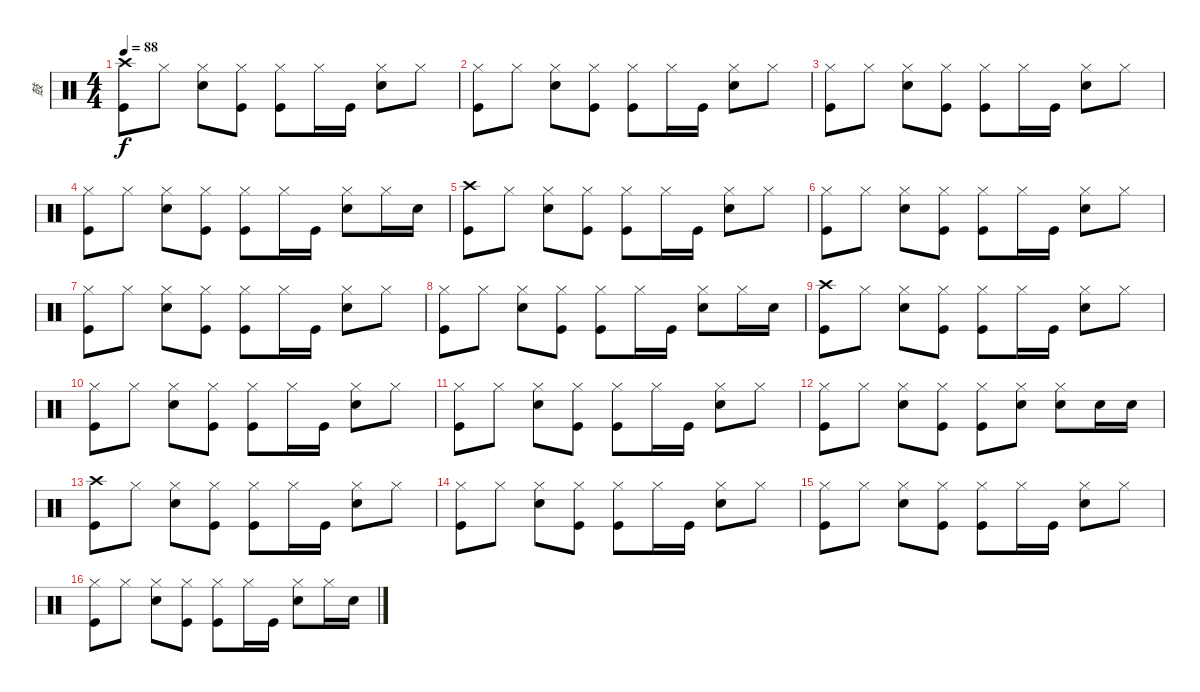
\track ("鼓" "鼓") {instrument percussion}
\staff {score}
\articulation defaults
\ts (4 4)
\tempo 88
\clef neutral
\ks c
("Crash high (hit)" "Kick (hit)").8{dy f} "Hi-Hat (closed)".8 ("Hi-Hat (closed)" "Snare (hit) 2").8 ("Hi-Hat (closed)" "Kick (hit)").8 ("Hi-Hat (closed)" "Kick (hit)").8 "Hi-Hat (closed)".16 "Kick (hit)".16 ("Hi-Hat (closed)" "Snare (hit) 2").8 "Hi-Hat (closed)".8 |
("Hi-Hat (closed)" "Kick (hit)").8 "Hi-Hat (closed)".8 ("Hi-Hat (closed)" "Snare (hit) 2").8 ("Hi-Hat (closed)" "Kick (hit)").8 ("Hi-Hat (closed)" "Kick (hit)").8 "Hi-Hat (closed)".16 "Kick (hit)".16 ("Hi-Hat (closed)" "Snare (hit) 2").8 "Hi-Hat (closed)".8 |
("Hi-Hat (closed)" "Kick (hit)").8 "Hi-Hat (closed)".8 ("Hi-Hat (closed)" "Snare (hit) 2").8 ("Hi-Hat (closed)" "Kick (hit)").8 ("Hi-Hat (closed)" "Kick (hit)").8 "Hi-Hat (closed)".16 "Kick (hit)".16 ("Hi-Hat (closed)" "Snare (hit) 2").8 "Hi-Hat (closed)".8 |
("Hi-Hat (closed)" "Kick (hit)").8 "Hi-Hat (closed)".8 ("Hi-Hat (closed)" "Snare (hit) 2").8 ("Hi-Hat (closed)" "Kick (hit)").8 ("Hi-Hat (closed)" "Kick (hit)").8 "Hi-Hat (closed)".16 "Kick (hit)".16 ("Hi-Hat (closed)" "Snare (hit) 2").8 "Hi-Hat (closed)".16 "Snare (hit) 2".16 |
("Crash high (hit)" "Kick (hit)").8 "Hi-Hat (closed)".8 ("Hi-Hat (closed)" "Snare (hit) 2").8 ("Hi-Hat (closed)" "Kick (hit)").8 ("Hi-Hat (closed)" "Kick (hit)").8 "Hi-Hat (closed)".16 "Kick (hit)".16 ("Hi-Hat (closed)" "Snare (hit) 2").8 "Hi-Hat (closed)".8 |
("Hi-Hat (closed)" "Kick (hit)").8 "Hi-Hat (closed)".8 ("Hi-Hat (closed)" "Snare (hit) 2").8 ("Hi-Hat (closed)" "Kick (hit)").8 ("Hi-Hat (closed)" "Kick (hit)").8 "Hi-Hat (closed)".16 "Kick (hit)".16 ("Hi-Hat (closed)" "Snare (hit) 2").8 "Hi-Hat (closed)".8 |
("Hi-Hat (closed)" "Kick (hit)").8 "Hi-Hat (closed)".8 ("Hi-Hat (closed)" "Snare (hit) 2").8 ("Hi-Hat (closed)" "Kick (hit)").8 ("Hi-Hat (closed)" "Kick (hit)").8 "Hi-Hat (closed)".16 "Kick (hit)".16 ("Hi-Hat (closed)" "Snare (hit) 2").8 "Hi-Hat (closed)".8 |
("Hi-Hat (closed)" "Kick (hit)").8 "Hi-Hat (closed)".8 ("Hi-Hat (closed)" "Snare (hit) 2").8 ("Hi-Hat (closed)" "Kick (hit)").8 ("Hi-Hat (closed)" "Kick (hit)").8 "Hi-Hat (closed)".16 "Kick (hit)".16 ("Hi-Hat (closed)" "Snare (hit) 2").8 "Hi-Hat (closed)".16 "Snare (hit) 2".16 |
("Crash high (hit)" "Kick (hit)").8 "Hi-Hat (closed)".8 ("Hi-Hat (closed)" "Snare (hit) 2").8 ("Hi-Hat (closed)" "Kick (hit)").8 ("Hi-Hat (closed)" "Kick (hit)").8 "Hi-Hat (closed)".16 "Kick (hit)".16 ("Hi-Hat (closed)" "Snare (hit) 2").8 "Hi-Hat (closed)".8 |
("Hi-Hat (closed)" "Kick (hit)").8 "Hi-Hat (closed)".8 ("Hi-Hat (closed)" "Snare (hit) 2").8 ("Hi-Hat (closed)" "Kick (hit)").8 ("Hi-Hat (closed)" "Kick (hit)").8 "Hi-Hat (closed)".16 "Kick (hit)".16 ("Hi-Hat (closed)" "Snare (hit) 2").8 "Hi-Hat (closed)".8 |
("Hi-Hat (closed)" "Kick (hit)").8 "Hi-Hat (closed)".8 ("Hi-Hat (closed)" "Snare (hit) 2").8 ("Hi-Hat (closed)" "Kick (hit)").8 ("Hi-Hat (closed)" "Kick (hit)").8 "Hi-Hat (closed)".16 "Kick (hit)".16 ("Hi-Hat (closed)" "Snare (hit) 2").8 "Hi-Hat (closed)".8 |
("Hi-Hat (closed)" "Kick (hit)").8 "Hi-Hat (closed)".8 ("Hi-Hat (closed)" "Snare (hit) 2").8 ("Hi-Hat (closed)" "Kick (hit)").8 ("Hi-Hat (closed)" "Kick (hit)").8 ("Hi-Hat (closed)" "Snare (hit) 2").8 ("Hi-Hat (closed)" "Snare (hit) 2").8 "Snare (hit) 2".16 "Snare (hit) 2".16 |
("Crash high (hit)" "Kick (hit)").8 "Hi-Hat (closed)".8 ("Hi-Hat (closed)" "Snare (hit) 2").8 ("Hi-Hat (closed)" "Kick (hit)").8 ("Hi-Hat (closed)" "Kick (hit)").8 "Hi-Hat (closed)".16 "Kick (hit)".16 ("Hi-Hat (closed)" "Snare (hit) 2").8 "Hi-Hat (closed)".8 |
("Hi-Hat (closed)" "Kick (hit)").8 "Hi-Hat (closed)".8 ("Hi-Hat (closed)" "Snare (hit) 2").8 ("Hi-Hat (closed)" "Kick (hit)").8 ("Hi-Hat (closed)" "Kick (hit)").8 "Hi-Hat (closed)".16 "Kick (hit)".16 ("Hi-Hat (closed)" "Snare (hit) 2").8 "Hi-Hat (closed)".8 |
("Hi-Hat (closed)" "Kick (hit)").8 "Hi-Hat (closed)".8 ("Hi-Hat (closed)" "Snare (hit) 2").8 ("Hi-Hat (closed)" "Kick (hit)").8 ("Hi-Hat (closed)" "Kick (hit)").8 "Hi-Hat (closed)".16 "Kick (hit)".16 ("Hi-Hat (closed)" "Snare (hit) 2").8 "Hi-Hat (closed)".8 |
("Hi-Hat (closed)" "Kick (hit)").8 "Hi-Hat (closed)".8 ("Hi-Hat (closed)" "Snare (hit) 2").8 ("Hi-Hat (closed)" "Kick (hit)").8 ("Hi-Hat (closed)" "Kick (hit)").8 "Hi-Hat (closed)".16 "Kick (hit)".16 ("Hi-Hat (closed)" "Snare (hit) 2").8 "Hi-Hat (closed)".16 "Snare (hit) 2".16
